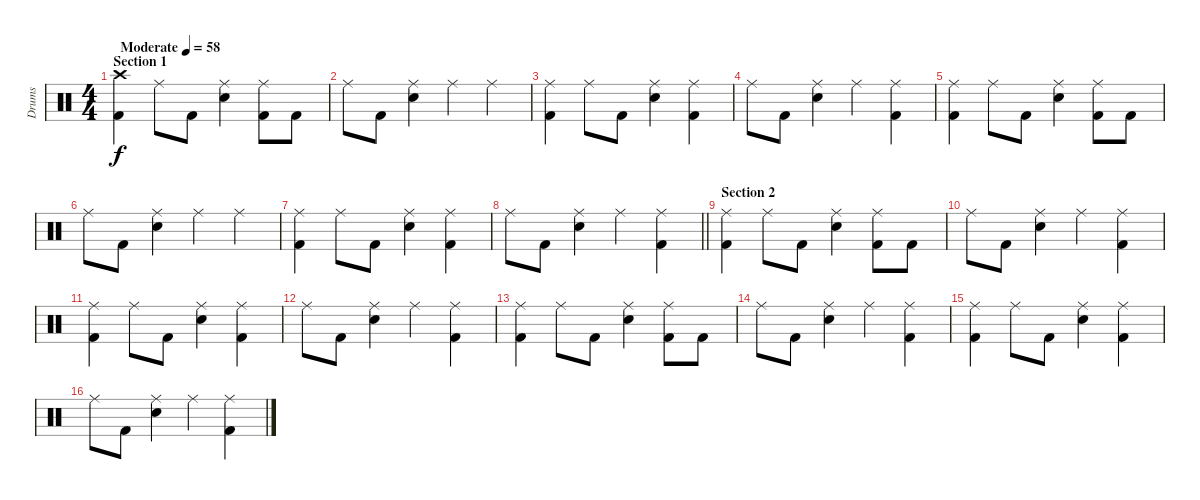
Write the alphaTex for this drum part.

\track ("Drums" "Drums") {instrument percussion}
\staff {score}
\articulation defaults
\ts (4 4)
\section ("" "Section 1")
\tempo (58 "Moderate")
\clef neutral
\ks c
("Crash high (hit)" "Kick (hit) 2").4{dy f} "Ride (middle)".8 "Kick (hit) 2".8 ("Ride (middle)" "Electric Snare (hit)").4 ("Ride (middle)" "Kick (hit) 2").8 "Kick (hit) 2".8 |
"Ride (middle)".8 "Kick (hit) 2".8 ("Ride (middle)" "Electric Snare (hit)").4 "Ride (middle)".4 "Ride (middle)".4 |
("Ride (middle)" "Kick (hit) 2").4 "Ride (middle)".8 "Kick (hit) 2".8 ("Ride (middle)" "Electric Snare (hit)").4 ("Ride (middle)" "Kick (hit) 2").4 |
"Ride (middle)".8 "Kick (hit) 2".8 ("Ride (middle)" "Electric Snare (hit)").4 "Ride (middle)".4 ("Ride (middle)" "Kick (hit) 2").4 |
("Ride (middle)" "Kick (hit) 2").4 "Ride (middle)".8 "Kick (hit) 2".8 ("Ride (middle)" "Electric Snare (hit)").4 ("Ride (middle)" "Kick (hit) 2").8 "Kick (hit) 2".8 |
"Ride (middle)".8 "Kick (hit) 2".8 ("Ride (middle)" "Electric Snare (hit)").4 "Ride (middle)".4 "Ride (middle)".4 |
("Ride (middle)" "Kick (hit) 2").4 "Ride (middle)".8 "Kick (hit) 2".8 ("Ride (middle)" "Electric Snare (hit)").4 ("Ride (middle)" "Kick (hit) 2").4 |
\barLineRight lightlight "Ride (middle)".8 "Kick (hit) 2".8
("Ride (middle)" "Electric Snare (hit)").4 "Ride (middle)".4 ("Ride (middle)" "Kick (hit) 2").4 |
\section ("" "Section 2")
("Ride (middle)" "Kick (hit) 2").4 "Ride (middle)".8 "Kick (hit) 2".8 ("Ride (middle)" "Electric Snare (hit)").4 ("Ride (middle)" "Kick (hit) 2").8 "Kick (hit) 2".8 |
"Ride (middle)".8 "Kick (hit) 2".8 ("Ride (middle)" "Electric Snare (hit)").4 "Ride (middle)".4 ("Ride (middle)" "Kick (hit) 2").4 |
("Ride (middle)" "Kick (hit) 2").4 "Ride (middle)".8 "Kick (hit) 2".8 ("Ride (middle)" "Electric Snare (hit)").4 ("Ride (middle)" "Kick (hit) 2").4 |
"Ride (middle)".8 "Kick (hit) 2".8 ("Ride (middle)" "Electric Snare (hit)").4 "Ride (middle)".4 ("Ride (middle)" "Kick (hit) 2").4 |
("Ride (middle)" "Kick (hit) 2").4 "Ride (middle)".8 "Kick (hit) 2".8 ("Ride (middle)" "Electric Snare (hit)").4 ("Ride (middle)" "Kick (hit) 2").8 "Kick (hit) 2".8 |
"Ride (middle)".8 "Kick (hit) 2".8 ("Ride (middle)" "Electric Snare (hit)").4 "Ride (middle)".4 ("Ride (middle)" "Kick (hit) 2").4 |
("Ride (middle)" "Kick (hit) 2").4 "Ride (middle)".8 "Kick (hit) 2".8 ("Ride (middle)" "Electric Snare (hit)").4 ("Ride (middle)" "Kick (hit) 2").4 |
"Ride (middle)".8 "Kick (hit) 2".8 ("Ride (middle)" "Electric Snare (hit)").4 "Ride (middle)".4 ("Ride (middle)" "Kick (hit) 2").4
